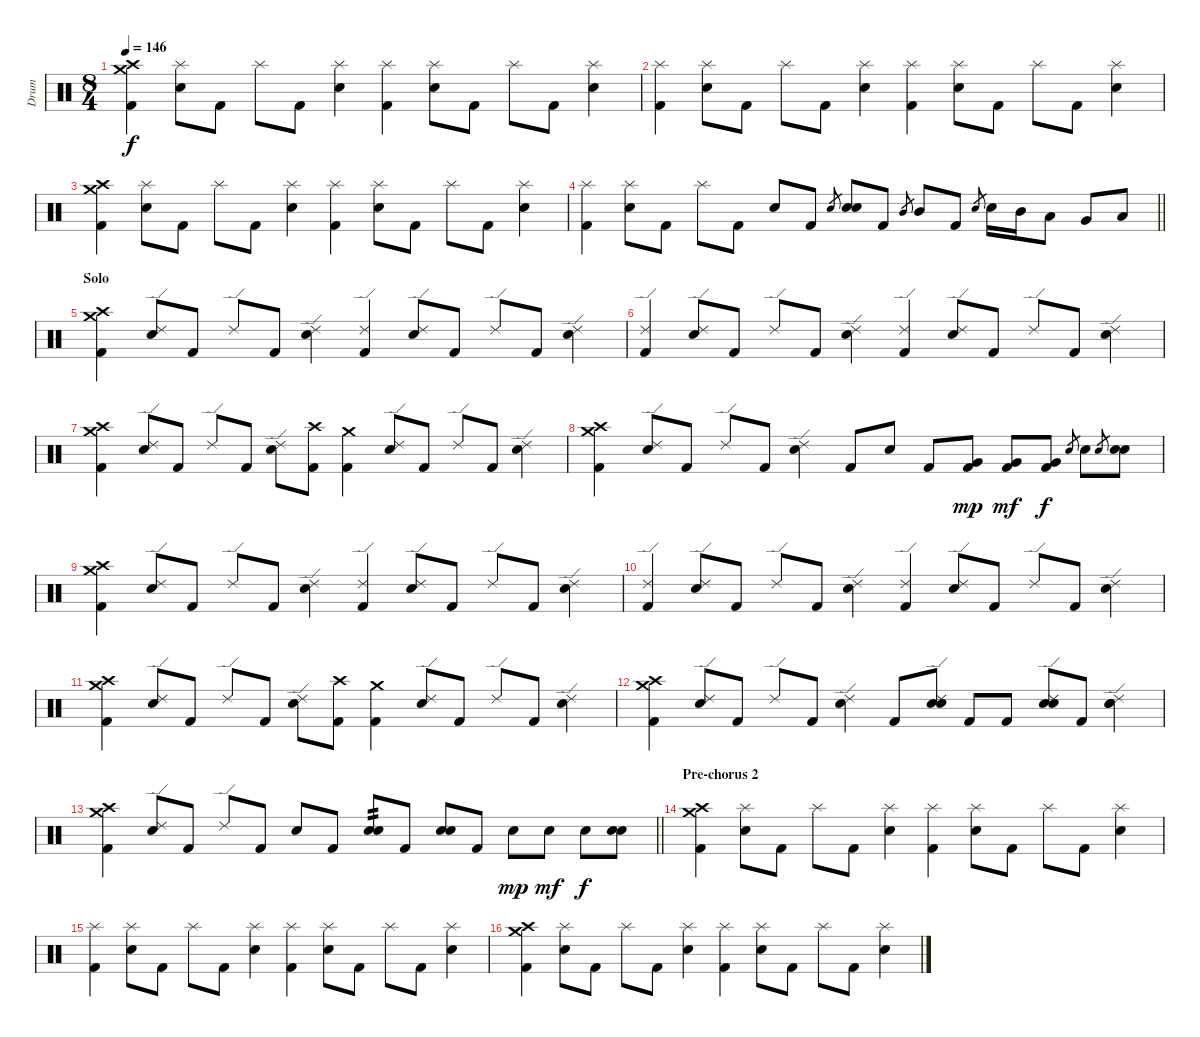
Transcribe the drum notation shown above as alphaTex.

\track ("Drum" "Drum") {instrument percussion}
\staff {score}
\articulation defaults
\ts (8 4)
\section ("" "")
\tempo 146
\clef neutral
\ks c
("Kick (hit) 2" "Crash high (hit)" "Crash medium (hit)").4{dy f} ("Splash (hit)" "Electric Snare (hit)").8 "Kick (hit) 2".8 "Splash (hit)".8 "Kick (hit) 2".8 ("Splash (hit)" "Electric Snare (hit)").4 ("Splash (hit)" "Kick (hit) 2").4 ("Splash (hit)" "Electric Snare (hit)").8 "Kick (hit) 2".8 "Splash (hit)".8 "Kick (hit) 2".8 ("Splash (hit)" "Electric Snare (hit)").4 |
("Splash (hit)" "Kick (hit) 2").4 ("Splash (hit)" "Electric Snare (hit)").8 "Kick (hit) 2".8 "Splash (hit)".8 "Kick (hit) 2".8 ("Splash (hit)" "Electric Snare (hit)").4 ("Splash (hit)" "Kick (hit) 2").4 ("Splash (hit)" "Electric Snare (hit)").8 "Kick (hit) 2".8 "Splash (hit)".8 "Kick (hit) 2".8 ("Splash (hit)" "Electric Snare (hit)").4 |
("Kick (hit) 2" "Crash high (hit)" "Crash medium (hit)").4 ("Splash (hit)" "Electric Snare (hit)").8 "Kick (hit) 2".8 "Splash (hit)".8 "Kick (hit) 2".8 ("Splash (hit)" "Electric Snare (hit)").4 ("Splash (hit)" "Kick (hit) 2").4 ("Splash (hit)" "Electric Snare (hit)").8 "Kick (hit) 2".8 "Splash (hit)".8 "Kick (hit) 2".8 ("Splash (hit)" "Electric Snare (hit)").4 |
\barLineRight lightlight
("Splash (hit)" "Kick (hit) 2").4 ("Splash (hit)" "Electric Snare (hit)").8 "Kick (hit) 2".8 "Splash (hit)".8 "Kick (hit) 2".8 "Electric Snare (hit)".8 "Kick (hit) 2".8 "Electric Snare (hit)".8{gr} ("Electric Snare (hit)" "Electric Snare (hit)").8 "Kick (hit) 2".8 "Mid Tom (hit)".8{gr} "Mid Tom (hit)".8 "Kick (hit) 2".8 "Electric Snare (hit)".8{gr} "Electric Snare (hit)".16 "Mid Tom (hit)".16 "Low Tom (hit)".8 "Very Low Tom (hit)".8 "Low Floor Tom (hit)".8 |
\section ("" "Solo")
("Kick (hit) 2" "Crash high (hit)" "Crash medium (hit)").4 ("Ride (edge) 2" "Electric Snare (hit)").8 "Kick (hit) 2".8 "Ride (edge) 2".8 "Kick (hit) 2".8 ("Ride (edge) 2" "Electric Snare (hit)").4 ("Ride (edge) 2" "Kick (hit) 2").4 ("Ride (edge) 2" "Electric Snare (hit)").8 "Kick (hit) 2".8 "Ride (edge) 2".8 "Kick (hit) 2".8 ("Ride (edge) 2" "Electric Snare (hit)").4 |
("Ride (edge) 2" "Kick (hit) 2").4 ("Ride (edge) 2" "Electric Snare (hit)").8 "Kick (hit) 2".8 "Ride (edge) 2".8 "Kick (hit) 2".8 ("Ride (edge) 2" "Electric Snare (hit)").4 ("Ride (edge) 2" "Kick (hit) 2").4 ("Ride (edge) 2" "Electric Snare (hit)").8 "Kick (hit) 2".8 "Ride (edge) 2".8 "Kick (hit) 2".8 ("Ride (edge) 2" "Electric Snare (hit)").4 |
("Kick (hit) 2" "Crash high (hit)" "Crash medium (hit)").4 ("Ride (edge) 2" "Electric Snare (hit)").8 "Kick (hit) 2".8 "Ride (edge) 2".8 "Kick (hit) 2".8 ("Ride (edge) 2" "Electric Snare (hit)").8 ("Kick (hit) 2" "Crash high (hit)").8 ("Kick (hit) 2" "Crash medium (hit)").4 ("Ride (edge) 2" "Electric Snare (hit)").8 "Kick (hit) 2".8 "Ride (edge) 2".8 "Kick (hit) 2".8 ("Ride (edge) 2" "Electric Snare (hit)").4 |
("Kick (hit) 2" "Crash high (hit)" "Crash medium (hit)").4 ("Ride (edge) 2" "Electric Snare (hit)").8 "Kick (hit) 2".8 "Ride (edge) 2".8 "Kick (hit) 2".8 ("Ride (edge) 2" "Electric Snare (hit)").4 "Kick (hit) 2".8 "Electric Snare (hit)".8 "Kick (hit) 2".8 ("Very Low Tom (hit)" "Kick (hit) 2").8{dy mp} ("Very Low Tom (hit)" "Kick (hit) 2").8{dy mf} ("Very Low Tom (hit)" "Kick (hit) 2").8{dy f} "Electric Snare (hit)".8{gr} "Electric Snare (hit)".8 "Electric Snare (hit)".8{gr} ("Electric Snare (hit)" "Electric Snare (hit)").8 |
("Kick (hit) 2" "Crash high (hit)" "Crash medium (hit)").4 ("Ride (edge) 2" "Electric Snare (hit)").8 "Kick (hit) 2".8 "Ride (edge) 2".8 "Kick (hit) 2".8 ("Ride (edge) 2" "Electric Snare (hit)").4 ("Ride (edge) 2" "Kick (hit) 2").4 ("Ride (edge) 2" "Electric Snare (hit)").8 "Kick (hit) 2".8 "Ride (edge) 2".8 "Kick (hit) 2".8 ("Ride (edge) 2" "Electric Snare (hit)").4 |
("Ride (edge) 2" "Kick (hit) 2").4 ("Ride (edge) 2" "Electric Snare (hit)").8 "Kick (hit) 2".8 "Ride (edge) 2".8 "Kick (hit) 2".8 ("Ride (edge) 2" "Electric Snare (hit)").4 ("Ride (edge) 2" "Kick (hit) 2").4 ("Ride (edge) 2" "Electric Snare (hit)").8 "Kick (hit) 2".8 "Ride (edge) 2".8 "Kick (hit) 2".8 ("Ride (edge) 2" "Electric Snare (hit)").4 |
("Kick (hit) 2" "Crash high (hit)" "Crash medium (hit)").4 ("Ride (edge) 2" "Electric Snare (hit)").8 "Kick (hit) 2".8 "Ride (edge) 2".8 "Kick (hit) 2".8 ("Ride (edge) 2" "Electric Snare (hit)").8 ("Kick (hit) 2" "Crash high (hit)").8 ("Kick (hit) 2" "Crash medium (hit)").4 ("Ride (edge) 2" "Electric Snare (hit)").8 "Kick (hit) 2".8 "Ride (edge) 2".8 "Kick (hit) 2".8 ("Ride (edge) 2" "Electric Snare (hit)").4 |
("Kick (hit) 2" "Crash high (hit)" "Crash medium (hit)").4 ("Ride (edge) 2" "Electric Snare (hit)").8 "Kick (hit) 2".8 "Ride (edge) 2".8 "Kick (hit) 2".8 ("Ride (edge) 2" "Electric Snare (hit)").4 "Kick (hit) 2".8 ("Ride (edge) 2" "Electric Snare (hit)" "Electric Snare (hit)").8 "Kick (hit) 2".8 "Kick (hit) 2".8 ("Ride (edge) 2" "Electric Snare (hit)" "Electric Snare (hit)").8 "Kick (hit) 2".8 ("Ride (edge) 2" "Electric Snare (hit)" "Electric Snare (hit)").4 |
\barLineRight lightlight
("Kick (hit) 2" "Crash high (hit)" "Crash medium (hit)").4 ("Ride (edge) 2" "Electric Snare (hit)").8 "Kick (hit) 2".8 "Ride (edge) 2".8 "Kick (hit) 2".8 "Electric Snare (hit)".8 "Kick (hit) 2".8 ("Electric Snare (hit)" "Electric Snare (hit)").8{tp 2} "Kick (hit) 2".8 ("Electric Snare (hit)" "Electric Snare (hit)").8 "Kick (hit) 2".8 "Electric Snare (hit)".8{dy mp} "Electric Snare (hit)".8{dy mf} "Electric Snare (hit)".8{dy f} ("Electric Snare (hit)" "Electric Snare (hit)").8 |
\section ("" "Pre-chorus 2")
("Kick (hit) 2" "Crash high (hit)" "Crash medium (hit)").4 ("Splash (hit)" "Electric Snare (hit)").8 "Kick (hit) 2".8 "Splash (hit)".8 "Kick (hit) 2".8 ("Splash (hit)" "Electric Snare (hit)").4 ("Splash (hit)" "Kick (hit) 2").4 ("Splash (hit)" "Electric Snare (hit)").8 "Kick (hit) 2".8 "Splash (hit)".8 "Kick (hit) 2".8 ("Splash (hit)" "Electric Snare (hit)").4 |
("Splash (hit)" "Kick (hit) 2").4 ("Splash (hit)" "Electric Snare (hit)").8 "Kick (hit) 2".8 "Splash (hit)".8 "Kick (hit) 2".8 ("Splash (hit)" "Electric Snare (hit)").4 ("Splash (hit)" "Kick (hit) 2").4 ("Splash (hit)" "Electric Snare (hit)").8 "Kick (hit) 2".8 "Splash (hit)".8 "Kick (hit) 2".8 ("Splash (hit)" "Electric Snare (hit)").4 |
("Kick (hit) 2" "Crash high (hit)" "Crash medium (hit)").4 ("Splash (hit)" "Electric Snare (hit)").8 "Kick (hit) 2".8 "Splash (hit)".8 "Kick (hit) 2".8 ("Splash (hit)" "Electric Snare (hit)").4 ("Splash (hit)" "Kick (hit) 2").4 ("Splash (hit)" "Electric Snare (hit)").8 "Kick (hit) 2".8 "Splash (hit)".8 "Kick (hit) 2".8 ("Splash (hit)" "Electric Snare (hit)").4
